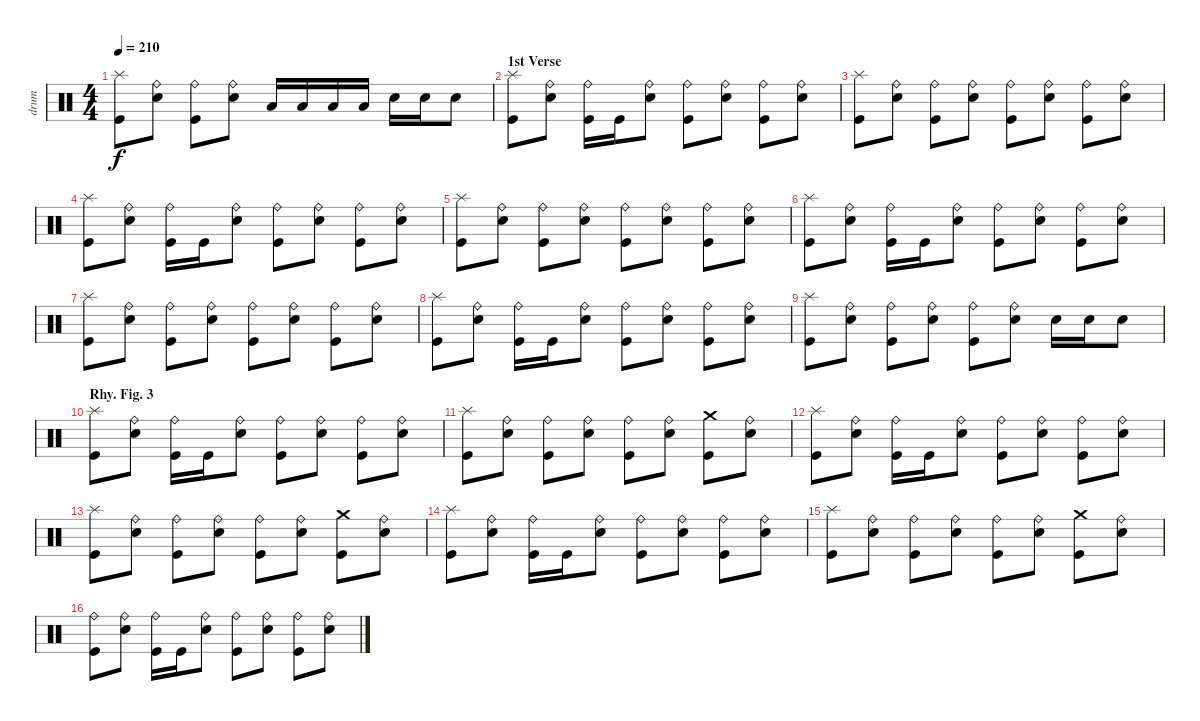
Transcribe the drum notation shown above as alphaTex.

\track ("drum" "drum") {instrument percussion}
\staff {score}
\articulation defaults
\ts (4 4)
\tempo 210
\clef neutral
\ks c
("Kick (hit)" "Splash (hit)").8{dy f} ("Electric Snare (hit)" "Ride (bell)").8 ("Kick (hit)" "Ride (bell)").8 ("Electric Snare (hit)" "Ride (bell)").8 "Low Tom (hit)".16 "Low Tom (hit)".16 "Low Tom (hit)".16 "Low Tom (hit)".16 "Electric Snare (hit)".16 "Electric Snare (hit)".16 "Electric Snare (hit)".8 |
\section ("" "1st Verse")
("Kick (hit)" "Splash (hit)").8 ("Electric Snare (hit)" "Ride (bell)").8 ("Kick (hit)" "Ride (bell)").16 "Kick (hit)".16 ("Electric Snare (hit)" "Ride (bell)").8 ("Kick (hit)" "Ride (bell)").8 ("Electric Snare (hit)" "Ride (bell)").8 ("Kick (hit)" "Ride (bell)").8 ("Electric Snare (hit)" "Ride (bell)").8 |
("Kick (hit)" "Splash (hit)").8 ("Electric Snare (hit)" "Ride (bell)").8 ("Kick (hit)" "Ride (bell)").8 ("Electric Snare (hit)" "Ride (bell)").8 ("Kick (hit)" "Ride (bell)").8 ("Electric Snare (hit)" "Ride (bell)").8 ("Kick (hit)" "Ride (bell)").8 ("Electric Snare (hit)" "Ride (bell)").8 |
("Kick (hit)" "Splash (hit)").8 ("Electric Snare (hit)" "Ride (bell)").8 ("Kick (hit)" "Ride (bell)").16 "Kick (hit)".16 ("Electric Snare (hit)" "Ride (bell)").8 ("Kick (hit)" "Ride (bell)").8 ("Electric Snare (hit)" "Ride (bell)").8 ("Kick (hit)" "Ride (bell)").8 ("Electric Snare (hit)" "Ride (bell)").8 |
("Kick (hit)" "Splash (hit)").8 ("Electric Snare (hit)" "Ride (bell)").8 ("Kick (hit)" "Ride (bell)").8 ("Electric Snare (hit)" "Ride (bell)").8 ("Kick (hit)" "Ride (bell)").8 ("Electric Snare (hit)" "Ride (bell)").8 ("Kick (hit)" "Ride (bell)").8 ("Electric Snare (hit)" "Ride (bell)").8 |
("Kick (hit)" "Splash (hit)").8 ("Electric Snare (hit)" "Ride (bell)").8 ("Kick (hit)" "Ride (bell)").16 "Kick (hit)".16 ("Electric Snare (hit)" "Ride (bell)").8 ("Kick (hit)" "Ride (bell)").8 ("Electric Snare (hit)" "Ride (bell)").8 ("Kick (hit)" "Ride (bell)").8 ("Electric Snare (hit)" "Ride (bell)").8 |
("Kick (hit)" "Splash (hit)").8 ("Electric Snare (hit)" "Ride (bell)").8 ("Kick (hit)" "Ride (bell)").8 ("Electric Snare (hit)" "Ride (bell)").8 ("Kick (hit)" "Ride (bell)").8 ("Electric Snare (hit)" "Ride (bell)").8 ("Kick (hit)" "Ride (bell)").8 ("Electric Snare (hit)" "Ride (bell)").8 |
("Kick (hit)" "Splash (hit)").8 ("Electric Snare (hit)" "Ride (bell)").8 ("Kick (hit)" "Ride (bell)").16 "Kick (hit)".16 ("Electric Snare (hit)" "Ride (bell)").8 ("Kick (hit)" "Ride (bell)").8 ("Electric Snare (hit)" "Ride (bell)").8 ("Kick (hit)" "Ride (bell)").8 ("Electric Snare (hit)" "Ride (bell)").8 |
("Kick (hit)" "Splash (hit)").8 ("Electric Snare (hit)" "Ride (bell)").8 ("Kick (hit)" "Ride (bell)").8 ("Electric Snare (hit)" "Ride (bell)").8 ("Kick (hit)" "Ride (bell)").8 ("Electric Snare (hit)" "Ride (bell)").8 "Electric Snare (hit)".16 "Electric Snare (hit)".16 "Electric Snare (hit)".8 |
\section ("" "Rhy. Fig. 3")
("Kick (hit)" "Splash (hit)").8 ("Electric Snare (hit)" "Ride (bell)").8 ("Kick (hit)" "Ride (bell)").16 "Kick (hit)".16 ("Electric Snare (hit)" "Ride (bell)").8 ("Kick (hit)" "Ride (bell)").8 ("Electric Snare (hit)" "Ride (bell)").8 ("Kick (hit)" "Ride (bell)").8 ("Electric Snare (hit)" "Ride (bell)").8 |
("Kick (hit)" "Splash (hit)").8 ("Electric Snare (hit)" "Ride (bell)").8 ("Kick (hit)" "Ride (bell)").8 ("Electric Snare (hit)" "Ride (bell)").8 ("Kick (hit)" "Ride (bell)").8 ("Electric Snare (hit)" "Ride (bell)").8 ("Kick (hit)" "Crash medium (hit)").8 ("Electric Snare (hit)" "Ride (bell)").8 |
("Kick (hit)" "Splash (hit)").8 ("Electric Snare (hit)" "Ride (bell)").8 ("Kick (hit)" "Ride (bell)").16 "Kick (hit)".16 ("Electric Snare (hit)" "Ride (bell)").8 ("Kick (hit)" "Ride (bell)").8 ("Electric Snare (hit)" "Ride (bell)").8 ("Kick (hit)" "Ride (bell)").8 ("Electric Snare (hit)" "Ride (bell)").8 |
("Kick (hit)" "Splash (hit)").8 ("Electric Snare (hit)" "Ride (bell)").8 ("Kick (hit)" "Ride (bell)").8 ("Electric Snare (hit)" "Ride (bell)").8 ("Kick (hit)" "Ride (bell)").8 ("Electric Snare (hit)" "Ride (bell)").8 ("Kick (hit)" "Crash medium (hit)").8 ("Electric Snare (hit)" "Ride (bell)").8 |
("Kick (hit)" "Splash (hit)").8 ("Electric Snare (hit)" "Ride (bell)").8 ("Kick (hit)" "Ride (bell)").16 "Kick (hit)".16 ("Electric Snare (hit)" "Ride (bell)").8 ("Kick (hit)" "Ride (bell)").8 ("Electric Snare (hit)" "Ride (bell)").8 ("Kick (hit)" "Ride (bell)").8 ("Electric Snare (hit)" "Ride (bell)").8 |
("Kick (hit)" "Splash (hit)").8 ("Electric Snare (hit)" "Ride (bell)").8 ("Kick (hit)" "Ride (bell)").8 ("Electric Snare (hit)" "Ride (bell)").8 ("Kick (hit)" "Ride (bell)").8 ("Electric Snare (hit)" "Ride (bell)").8 ("Kick (hit)" "Crash medium (hit)").8 ("Electric Snare (hit)" "Ride (bell)").8 |
("Kick (hit)" "Ride (bell)").8 ("Electric Snare (hit)" "Ride (bell)").8 ("Kick (hit)" "Ride (bell)").16 "Kick (hit)".16 ("Electric Snare (hit)" "Ride (bell)").8 ("Kick (hit)" "Ride (bell)").8 ("Electric Snare (hit)" "Ride (bell)").8 ("Kick (hit)" "Ride (bell)").8 ("Electric Snare (hit)" "Ride (bell)").8
